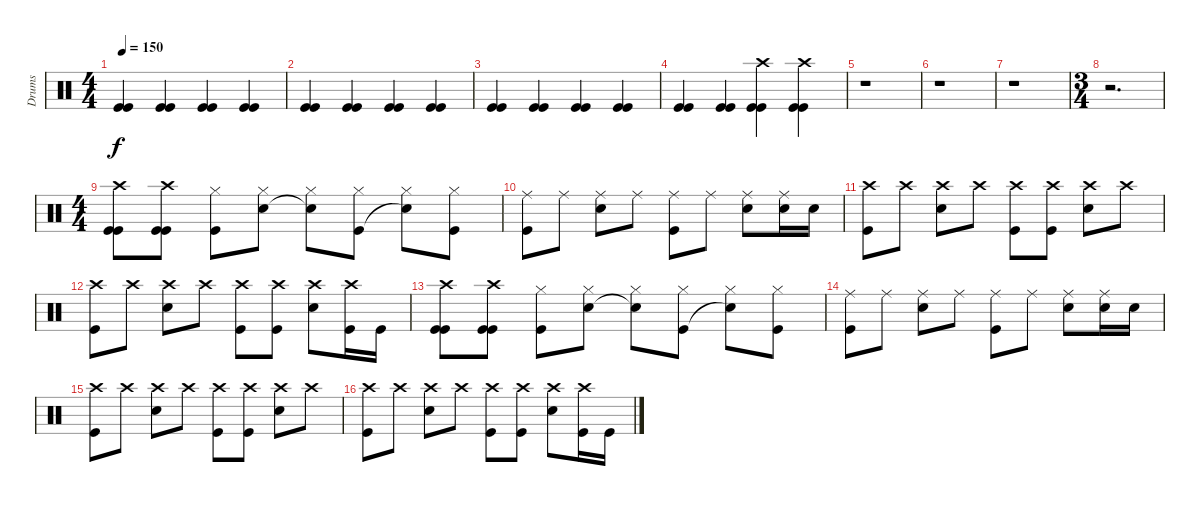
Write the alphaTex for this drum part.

\track ("Drums" "Drums") {instrument percussion}
\staff {score}
\articulation defaults
\ts (4 4)
\tempo 150
\clef neutral
\ks c
("Kick (hit)" "Kick (hit)").4{dy f} ("Kick (hit)" "Kick (hit)").4 ("Kick (hit)" "Kick (hit)").4 ("Kick (hit)" "Kick (hit)").4 |
("Kick (hit)" "Kick (hit)").4 ("Kick (hit)" "Kick (hit)").4 ("Kick (hit)" "Kick (hit)").4 ("Kick (hit)" "Kick (hit)").4 |
("Kick (hit)" "Kick (hit)").4 ("Kick (hit)" "Kick (hit)").4 ("Kick (hit)" "Kick (hit)").4 ("Kick (hit)" "Kick (hit)").4 |
("Kick (hit)" "Kick (hit)").4 ("Kick (hit)" "Kick (hit)").4 ("Crash high (hit)" "Kick (hit)" "Kick (hit)").4 ("Crash high (hit)" "Kick (hit)" "Kick (hit)").4 |
r.1 |
r.1 |
r.1 |
\ts (3 4)
r.2{d} |
\ts (4 4)
("Crash high (hit)" "Kick (hit)" "Kick (hit)").8 ("Crash high (hit)" "Kick (hit)" "Kick (hit)").8 ("Hi-Hat (closed)" "Kick (hit)").8 ("Hi-Hat (closed)" "Snare (hit) 2").8 ("Hi-Hat (closed)" "Snare (hit)"{t}).8 ("Hi-Hat (closed)" "Kick (hit)").8 ("Hi-Hat (closed)" "Snare (hit)"{t}).8 ("Hi-Hat (closed)" "Kick (hit)").8 |
("Ride (middle)" "Kick (hit)").8 "Ride (middle)".8 ("Ride (middle)" "Snare (hit) 2").8 "Ride (middle)".8 ("Ride (middle)" "Kick (hit)").8 "Ride (middle)".8 ("Ride (middle)" "Snare (hit) 2").8 ("Ride (middle)" "Snare (hit) 2").16 "Snare (hit) 2".16 |
("Crash high (hit)" "Kick (hit)").8 "Crash high (hit)".8 ("Crash high (hit)" "Snare (hit) 2").8 "Crash high (hit)".8 ("Crash high (hit)" "Kick (hit)").8 ("Crash high (hit)" "Kick (hit)").8 ("Crash high (hit)" "Snare (hit) 2").8 "Crash high (hit)".8 |
("Crash high (hit)" "Kick (hit)").8 "Crash high (hit)".8 ("Crash high (hit)" "Snare (hit) 2").8 "Crash high (hit)".8 ("Crash high (hit)" "Kick (hit)").8 ("Crash high (hit)" "Kick (hit)").8 ("Crash high (hit)" "Snare (hit) 2").8 ("Crash high (hit)" "Kick (hit)").16 "Kick (hit)".16 |
("Crash high (hit)" "Kick (hit)" "Kick (hit)").8 ("Crash high (hit)" "Kick (hit)" "Kick (hit)").8 ("Hi-Hat (closed)" "Kick (hit)").8 ("Hi-Hat (closed)" "Snare (hit) 2").8 ("Hi-Hat (closed)" "Snare (hit)"{t}).8 ("Hi-Hat (closed)" "Kick (hit)").8 ("Hi-Hat (closed)" "Snare (hit)"{t}).8 ("Hi-Hat (closed)" "Kick (hit)").8 |
("Ride (middle)" "Kick (hit)").8 "Ride (middle)".8 ("Ride (middle)" "Snare (hit) 2").8 "Ride (middle)".8 ("Ride (middle)" "Kick (hit)").8 "Ride (middle)".8 ("Ride (middle)" "Snare (hit) 2").8 ("Ride (middle)" "Snare (hit) 2").16 "Snare (hit) 2".16 |
("Crash high (hit)" "Kick (hit)").8 "Crash high (hit)".8 ("Crash high (hit)" "Snare (hit) 2").8 "Crash high (hit)".8 ("Crash high (hit)" "Kick (hit)").8 ("Crash high (hit)" "Kick (hit)").8 ("Crash high (hit)" "Snare (hit) 2").8 "Crash high (hit)".8 |
("Crash high (hit)" "Kick (hit)").8 "Crash high (hit)".8 ("Crash high (hit)" "Snare (hit) 2").8 "Crash high (hit)".8 ("Crash high (hit)" "Kick (hit)").8 ("Crash high (hit)" "Kick (hit)").8 ("Crash high (hit)" "Snare (hit) 2").8 ("Crash high (hit)" "Kick (hit)").16 "Kick (hit)".16
